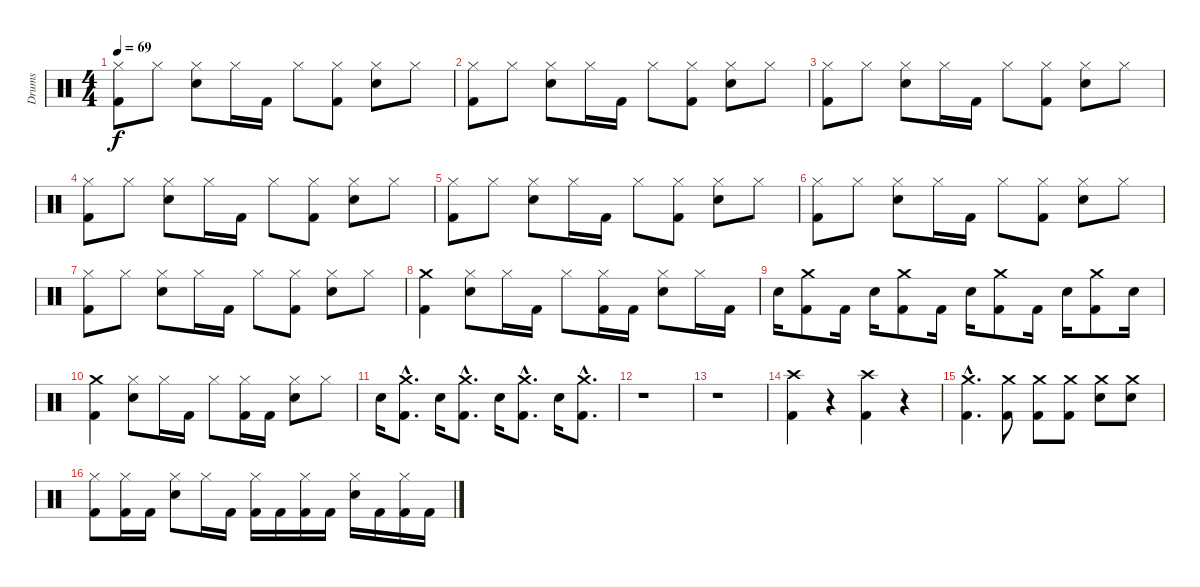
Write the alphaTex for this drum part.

\track ("Drums" "Drums") {instrument percussion}
\staff {score}
\articulation defaults
\ts (4 4)
\tempo 69
\clef neutral
\ks c
("Hi-Hat (closed)" "Kick (hit) 2").8{dy f} "Hi-Hat (closed)".8 ("Hi-Hat (closed)" "Snare (hit) 2").8 "Hi-Hat (closed)".16 "Kick (hit) 2".16 "Hi-Hat (closed)".8 ("Kick (hit) 2" "Hi-Hat (closed)").8 ("Hi-Hat (closed)" "Snare (hit) 2").8 "Hi-Hat (closed)".8 |
("Hi-Hat (closed)" "Kick (hit) 2").8 "Hi-Hat (closed)".8 ("Hi-Hat (closed)" "Snare (hit) 2").8 "Hi-Hat (closed)".16 "Kick (hit) 2".16 "Hi-Hat (closed)".8 ("Kick (hit) 2" "Hi-Hat (closed)").8 ("Hi-Hat (closed)" "Snare (hit) 2").8 "Hi-Hat (closed)".8 |
("Hi-Hat (closed)" "Kick (hit) 2").8 "Hi-Hat (closed)".8 ("Hi-Hat (closed)" "Snare (hit) 2").8 "Hi-Hat (closed)".16 "Kick (hit) 2".16 "Hi-Hat (closed)".8 ("Kick (hit) 2" "Hi-Hat (closed)").8 ("Hi-Hat (closed)" "Snare (hit) 2").8 "Hi-Hat (closed)".8 |
("Hi-Hat (closed)" "Kick (hit) 2").8 "Hi-Hat (closed)".8 ("Hi-Hat (closed)" "Snare (hit) 2").8 "Hi-Hat (closed)".16 "Kick (hit) 2".16 "Hi-Hat (closed)".8 ("Kick (hit) 2" "Hi-Hat (closed)").8 ("Hi-Hat (closed)" "Snare (hit) 2").8 "Hi-Hat (closed)".8 |
("Hi-Hat (closed)" "Kick (hit) 2").8 "Hi-Hat (closed)".8 ("Hi-Hat (closed)" "Snare (hit) 2").8 "Hi-Hat (closed)".16 "Kick (hit) 2".16 "Hi-Hat (closed)".8 ("Kick (hit) 2" "Hi-Hat (closed)").8 ("Hi-Hat (closed)" "Snare (hit) 2").8 "Hi-Hat (closed)".8 |
("Hi-Hat (closed)" "Kick (hit) 2").8 "Hi-Hat (closed)".8 ("Hi-Hat (closed)" "Snare (hit) 2").8 "Hi-Hat (closed)".16 "Kick (hit) 2".16 "Hi-Hat (closed)".8 ("Kick (hit) 2" "Hi-Hat (closed)").8 ("Hi-Hat (closed)" "Snare (hit) 2").8 "Hi-Hat (closed)".8 |
("Hi-Hat (closed)" "Kick (hit) 2").8 "Hi-Hat (closed)".8 ("Hi-Hat (closed)" "Snare (hit) 2").8 "Hi-Hat (closed)".16 "Kick (hit) 2".16 "Hi-Hat (closed)".8 ("Kick (hit) 2" "Hi-Hat (closed)").8 ("Hi-Hat (closed)" "Snare (hit) 2").8 "Hi-Hat (closed)".8 |
("Crash medium (hit)" "Kick (hit) 2").4 ("Snare (hit) 2" "Hi-Hat (closed)").8 "Hi-Hat (closed)".16 "Kick (hit) 2".16 "Hi-Hat (closed)".8 ("Hi-Hat (closed)" "Kick (hit) 2").16 "Kick (hit) 2".16 ("Hi-Hat (closed)" "Snare (hit) 2").8 "Hi-Hat (closed)".16 "Kick (hit) 2".16 |
"Snare (hit) 2".16 ("Crash medium (hit)" "Kick (hit) 2").8 "Kick (hit) 2".16 "Snare (hit) 2".16 ("Crash medium (hit)" "Kick (hit) 2").8 "Kick (hit) 2".16 "Snare (hit) 2".16 ("Crash medium (hit)" "Kick (hit) 2").8 "Kick (hit) 2".16 "Snare (hit) 2".16 ("Crash medium (hit)" "Kick (hit) 2").8 "Snare (hit) 2".16 |
("Kick (hit) 2" "Crash medium (hit)").4 ("Hi-Hat (closed)" "Snare (hit) 2").8 "Hi-Hat (closed)".16 "Kick (hit) 2".16 "Hi-Hat (closed)".8 ("Kick (hit) 2" "Hi-Hat (closed)").16 "Kick (hit) 2".16 ("Hi-Hat (closed)" "Snare (hit) 2").8 "Hi-Hat (closed)".8 |
"Snare (hit) 2".16 ("Crash medium (hit)"{hac} "Kick (hit) 2"{hac}).8{d} "Snare (hit) 2".16 ("Crash medium (hit)"{hac} "Kick (hit) 2"{hac}).8{d} "Snare (hit) 2".16 ("Crash medium (hit)"{hac} "Kick (hit) 2"{hac}).8{d} "Snare (hit) 2".16 ("Crash medium (hit)"{hac} "Kick (hit) 2"{hac}).8{d} |
r.1 |
r.1 |
("Crash high (hit)" "Kick (hit) 2").4 r.4 ("Crash high (hit)" "Kick (hit) 2").4 r.4 |
("Crash medium (hit)"{hac} "Kick (hit) 2"{hac}).4{d} ("Kick (hit) 2" "Crash medium (hit)").8 ("Kick (hit) 2" "Crash medium (hit)").8 ("Kick (hit) 2" "Crash medium (hit)").8 ("Snare (hit) 2" "Crash medium (hit)").8 ("Snare (hit) 2" "Crash medium (hit)").8 |
("Hi-Hat (closed)" "Kick (hit) 2").8 ("Hi-Hat (closed)" "Kick (hit) 2").16 "Kick (hit) 2".16 ("Hi-Hat (closed)" "Snare (hit) 2").8 "Hi-Hat (closed)".16 "Kick (hit) 2".16 ("Hi-Hat (closed)" "Kick (hit) 2").16 "Kick (hit) 2".16 ("Hi-Hat (closed)" "Kick (hit) 2").16 "Kick (hit) 2".16 ("Hi-Hat (closed)" "Snare (hit) 2").16 "Kick (hit) 2".16 ("Hi-Hat (closed)" "Kick (hit) 2").16 "Kick (hit) 2".16
